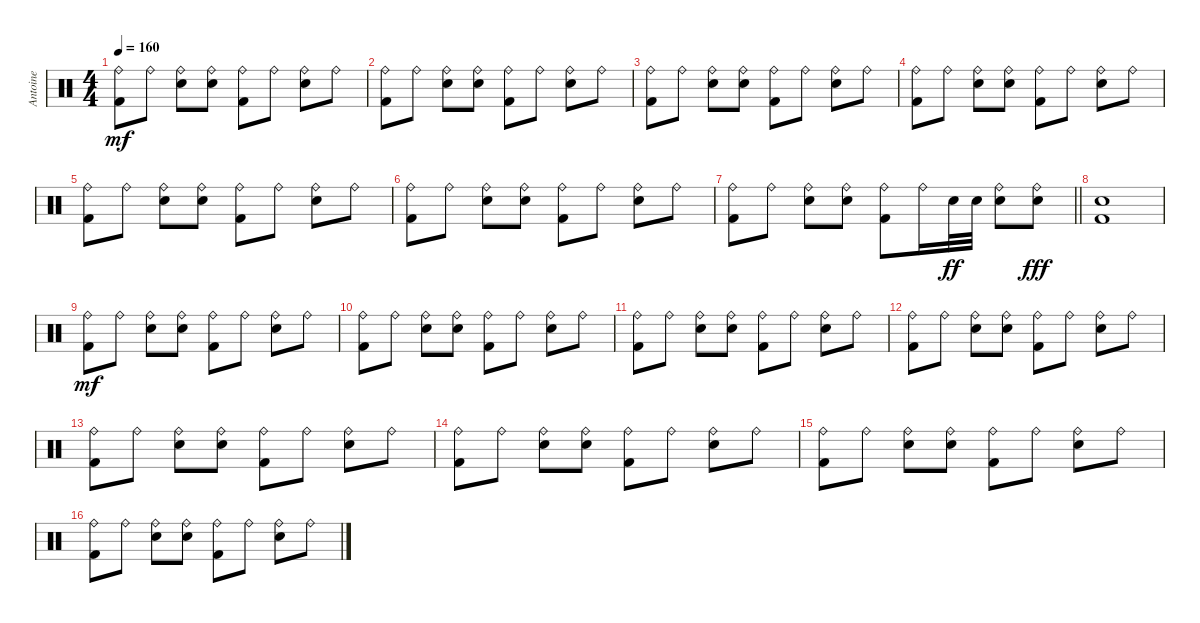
\track ("Antoine" "Antoine") {instrument percussion}
\staff {score}
\articulation defaults
\ts (4 4)
\tempo 160
\clef neutral
\ks c
("Kick (hit) 2" "Ride (bell)").8{dy mf} "Ride (bell)".8 ("Electric Snare (hit)" "Ride (bell)").8 ("Electric Snare (hit)" "Ride (bell)").8 ("Kick (hit) 2" "Ride (bell)").8 "Ride (bell)".8 ("Electric Snare (hit)" "Ride (bell)").8 "Ride (bell)".8 |
("Kick (hit) 2" "Ride (bell)").8 "Ride (bell)".8 ("Electric Snare (hit)" "Ride (bell)").8 ("Electric Snare (hit)" "Ride (bell)").8 ("Kick (hit) 2" "Ride (bell)").8 "Ride (bell)".8 ("Electric Snare (hit)" "Ride (bell)").8 "Ride (bell)".8 |
("Kick (hit) 2" "Ride (bell)").8 "Ride (bell)".8 ("Electric Snare (hit)" "Ride (bell)").8 ("Electric Snare (hit)" "Ride (bell)").8 ("Kick (hit) 2" "Ride (bell)").8 "Ride (bell)".8 ("Electric Snare (hit)" "Ride (bell)").8 "Ride (bell)".8 |
("Kick (hit) 2" "Ride (bell)").8 "Ride (bell)".8 ("Electric Snare (hit)" "Ride (bell)").8 ("Electric Snare (hit)" "Ride (bell)").8 ("Kick (hit) 2" "Ride (bell)").8 "Ride (bell)".8 ("Electric Snare (hit)" "Ride (bell)").8 "Ride (bell)".8 |
("Kick (hit) 2" "Ride (bell)").8 "Ride (bell)".8 ("Electric Snare (hit)" "Ride (bell)").8 ("Electric Snare (hit)" "Ride (bell)").8 ("Kick (hit) 2" "Ride (bell)").8 "Ride (bell)".8 ("Electric Snare (hit)" "Ride (bell)").8 "Ride (bell)".8 |
("Kick (hit) 2" "Ride (bell)").8 "Ride (bell)".8 ("Electric Snare (hit)" "Ride (bell)").8 ("Electric Snare (hit)" "Ride (bell)").8 ("Kick (hit) 2" "Ride (bell)").8 "Ride (bell)".8 ("Electric Snare (hit)" "Ride (bell)").8 "Ride (bell)".8 |
\barLineRight lightlight
("Kick (hit) 2" "Ride (bell)").8 "Ride (bell)".8 ("Electric Snare (hit)" "Ride (bell)").8 ("Electric Snare (hit)" "Ride (bell)").8 ("Kick (hit) 2" "Ride (bell)").8 "Ride (bell)".16 "Electric Snare (hit)".32{dy ff} "Electric Snare (hit)".32 ("Electric Snare (hit)" "Ride (bell)").8 ("Ride (bell)" "Electric Snare (hit)").8{dy fff} |
("Kick (hit) 2" "Electric Snare (hit)").1 |
("Kick (hit) 2" "Ride (bell)").8{dy mf} "Ride (bell)".8 ("Electric Snare (hit)" "Ride (bell)").8 ("Electric Snare (hit)" "Ride (bell)").8 ("Kick (hit) 2" "Ride (bell)").8 "Ride (bell)".8 ("Electric Snare (hit)" "Ride (bell)").8 "Ride (bell)".8 |
("Kick (hit) 2" "Ride (bell)").8 "Ride (bell)".8 ("Electric Snare (hit)" "Ride (bell)").8 ("Electric Snare (hit)" "Ride (bell)").8 ("Kick (hit) 2" "Ride (bell)").8 "Ride (bell)".8 ("Electric Snare (hit)" "Ride (bell)").8 "Ride (bell)".8 |
("Kick (hit) 2" "Ride (bell)").8 "Ride (bell)".8 ("Electric Snare (hit)" "Ride (bell)").8 ("Electric Snare (hit)" "Ride (bell)").8 ("Kick (hit) 2" "Ride (bell)").8 "Ride (bell)".8 ("Electric Snare (hit)" "Ride (bell)").8 "Ride (bell)".8 |
("Kick (hit) 2" "Ride (bell)").8 "Ride (bell)".8 ("Electric Snare (hit)" "Ride (bell)").8 ("Electric Snare (hit)" "Ride (bell)").8 ("Kick (hit) 2" "Ride (bell)").8 "Ride (bell)".8 ("Electric Snare (hit)" "Ride (bell)").8 "Ride (bell)".8 |
("Kick (hit) 2" "Ride (bell)").8 "Ride (bell)".8 ("Electric Snare (hit)" "Ride (bell)").8 ("Electric Snare (hit)" "Ride (bell)").8 ("Kick (hit) 2" "Ride (bell)").8 "Ride (bell)".8 ("Electric Snare (hit)" "Ride (bell)").8 "Ride (bell)".8 |
("Kick (hit) 2" "Ride (bell)").8 "Ride (bell)".8 ("Electric Snare (hit)" "Ride (bell)").8 ("Electric Snare (hit)" "Ride (bell)").8 ("Kick (hit) 2" "Ride (bell)").8 "Ride (bell)".8 ("Electric Snare (hit)" "Ride (bell)").8 "Ride (bell)".8 |
("Kick (hit) 2" "Ride (bell)").8 "Ride (bell)".8 ("Electric Snare (hit)" "Ride (bell)").8 ("Electric Snare (hit)" "Ride (bell)").8 ("Kick (hit) 2" "Ride (bell)").8 "Ride (bell)".8 ("Electric Snare (hit)" "Ride (bell)").8 "Ride (bell)".8 |
("Kick (hit) 2" "Ride (bell)").8 "Ride (bell)".8 ("Electric Snare (hit)" "Ride (bell)").8 ("Electric Snare (hit)" "Ride (bell)").8 ("Kick (hit) 2" "Ride (bell)").8 "Ride (bell)".8 ("Electric Snare (hit)" "Ride (bell)").8 "Ride (bell)".8
